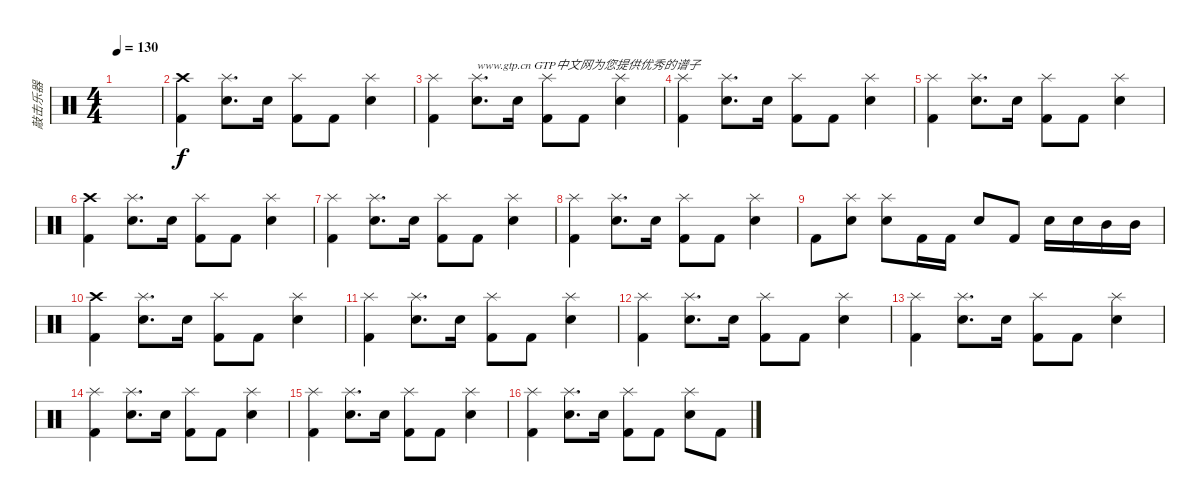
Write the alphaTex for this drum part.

\track ("敲击乐器" "敲击乐器") {instrument percussion}
\staff {score}
\articulation defaults
\ts (4 4)
\tempo 130
\clef neutral
\ks c
|
("Crash high (hit)" "Kick (hit) 2").4 ("Splash (hit)" "Snare (hit) 2").8{d} "Snare (hit) 2".16 ("Splash (hit)" "Kick (hit) 2").8 "Kick (hit) 2".8 ("Splash (hit)" "Snare (hit) 2").4 |
("Splash (hit)" "Kick (hit) 2").4 ("Splash (hit)" "Snare (hit) 2").8{d txt "www.gtp.cn GTP中文网为您提供优秀的谱子"} "Snare (hit) 2".16 ("Splash (hit)" "Kick (hit) 2").8 "Kick (hit) 2".8 ("Splash (hit)" "Snare (hit) 2").4 |
("Splash (hit)" "Kick (hit) 2").4 ("Splash (hit)" "Snare (hit) 2").8{d} "Snare (hit) 2".16 ("Splash (hit)" "Kick (hit) 2").8 "Kick (hit) 2".8 ("Splash (hit)" "Snare (hit) 2").4 |
("Splash (hit)" "Kick (hit) 2").4 ("Splash (hit)" "Snare (hit) 2").8{d} "Snare (hit) 2".16 ("Splash (hit)" "Kick (hit) 2").8 "Kick (hit) 2".8 ("Splash (hit)" "Snare (hit) 2").4 |
("Crash high (hit)" "Kick (hit) 2").4 ("Splash (hit)" "Snare (hit) 2").8{d} "Snare (hit) 2".16 ("Splash (hit)" "Kick (hit) 2").8 "Kick (hit) 2".8 ("Splash (hit)" "Snare (hit) 2").4 |
("Splash (hit)" "Kick (hit) 2").4 ("Splash (hit)" "Snare (hit) 2").8{d} "Snare (hit) 2".16 ("Splash (hit)" "Kick (hit) 2").8 "Kick (hit) 2".8 ("Splash (hit)" "Snare (hit) 2").4 |
("Splash (hit)" "Kick (hit) 2").4 ("Splash (hit)" "Snare (hit) 2").8{d} "Snare (hit) 2".16 ("Splash (hit)" "Kick (hit) 2").8 "Kick (hit) 2".8 ("Splash (hit)" "Snare (hit) 2").4 |
"Kick (hit) 2".8 ("Splash (hit)" "Snare (hit) 2").8 ("Splash (hit)" "Snare (hit) 2").8 "Kick (hit) 2".16 "Kick (hit) 2".16 "Snare (hit) 2".8 "Kick (hit) 2".8 "Snare (hit) 2".16 "Snare (hit) 2".16 "Mid Tom (hit)".16 "Mid Tom (hit)".16 |
("Crash high (hit)" "Kick (hit) 2").4 ("Splash (hit)" "Snare (hit) 2").8{d} "Snare (hit) 2".16 ("Splash (hit)" "Kick (hit) 2").8 "Kick (hit) 2".8 ("Splash (hit)" "Snare (hit) 2").4 |
("Splash (hit)" "Kick (hit) 2").4 ("Splash (hit)" "Snare (hit) 2").8{d} "Snare (hit) 2".16 ("Splash (hit)" "Kick (hit) 2").8 "Kick (hit) 2".8 ("Splash (hit)" "Snare (hit) 2").4 |
("Splash (hit)" "Kick (hit) 2").4 ("Splash (hit)" "Snare (hit) 2").8{d} "Snare (hit) 2".16 ("Splash (hit)" "Kick (hit) 2").8 "Kick (hit) 2".8 ("Splash (hit)" "Snare (hit) 2").4 |
("Splash (hit)" "Kick (hit) 2").4 ("Splash (hit)" "Snare (hit) 2").8{d} "Snare (hit) 2".16 ("Splash (hit)" "Kick (hit) 2").8 "Kick (hit) 2".8 ("Splash (hit)" "Snare (hit) 2").4 |
("Splash (hit)" "Kick (hit) 2").4 ("Splash (hit)" "Snare (hit) 2").8{d} "Snare (hit) 2".16 ("Splash (hit)" "Kick (hit) 2").8 "Kick (hit) 2".8 ("Splash (hit)" "Snare (hit) 2").4 |
("Splash (hit)" "Kick (hit) 2").4 ("Splash (hit)" "Snare (hit) 2").8{d} "Snare (hit) 2".16 ("Splash (hit)" "Kick (hit) 2").8 "Kick (hit) 2".8 ("Splash (hit)" "Snare (hit) 2").4 |
("Splash (hit)" "Kick (hit) 2").4 ("Splash (hit)" "Snare (hit) 2").8{d} "Snare (hit) 2".16 ("Splash (hit)" "Kick (hit) 2").8 "Kick (hit) 2".8 ("Splash (hit)" "Snare (hit) 2").8 "Kick (hit) 2".8
